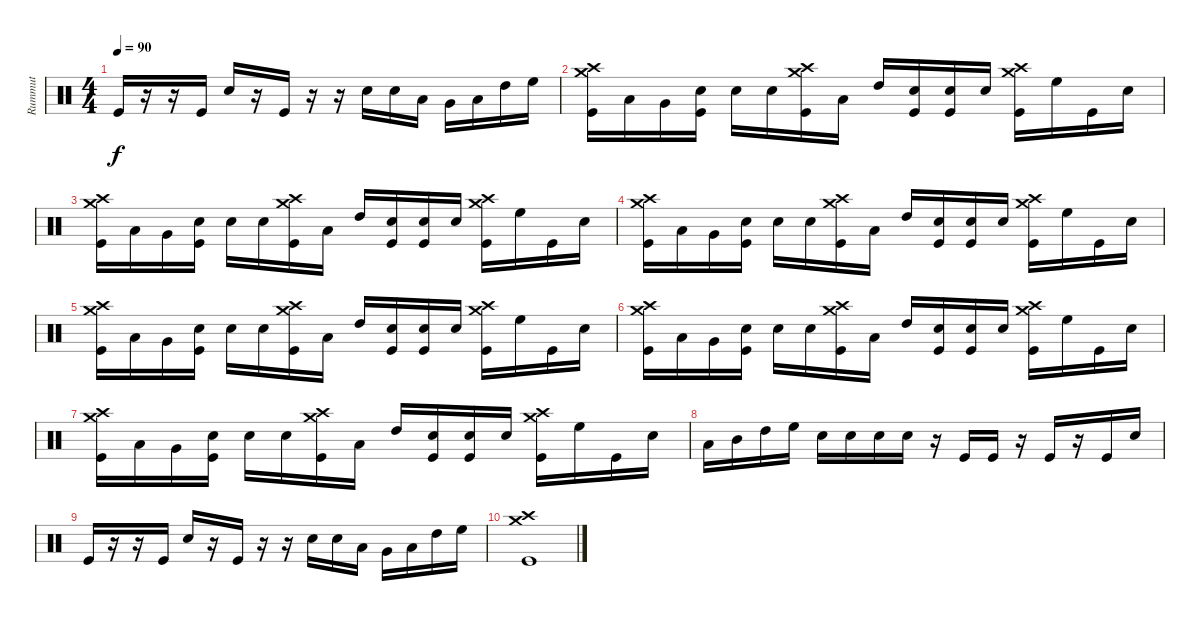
\track ("Rummut" "Rummut") {instrument percussion}
\staff {score}
\articulation defaults
\ts (4 4)
\tempo 90
\clef neutral
\ks c "Kick (hit)".16{dy f}
r.16 r.16 "Kick (hit)".16 "Snare (hit) 2".16 r.16 "Kick (hit)".16 r.16 r.16 "Snare (hit) 2".16 "Snare (hit) 2".16 "Low Floor Tom (hit)".16 "Very Low Tom (hit)".16 "Low Tom (hit)".16 "High Tom (hit)".16 "High Floor Tom (hit)".16 |
("Crash medium (hit)" "Crash high (hit)" "Kick (hit)").16 "Low Floor Tom (hit)".16 "Very Low Tom (hit)".16 ("Snare (hit) 2" "Kick (hit)").16 "Snare (hit) 2".16 "Snare (hit) 2".16 ("Crash medium (hit)" "Crash high (hit)" "Kick (hit)").16 "Low Tom (hit)".16 "High Tom (hit)".16 ("Snare (hit) 2" "Kick (hit)").16 ("Snare (hit) 2" "Kick (hit)").16 "Snare (hit) 2".16 ("Crash medium (hit)" "Crash high (hit)" "Kick (hit)").16 "High Floor Tom (hit)".16 "Kick (hit)".16 "Snare (hit) 2".16 |
("Crash medium (hit)" "Crash high (hit)" "Kick (hit)").16 "Low Floor Tom (hit)".16 "Very Low Tom (hit)".16 ("Snare (hit) 2" "Kick (hit)").16 "Snare (hit) 2".16 "Snare (hit) 2".16 ("Crash medium (hit)" "Crash high (hit)" "Kick (hit)").16 "Low Tom (hit)".16 "High Tom (hit)".16 ("Snare (hit) 2" "Kick (hit)").16 ("Snare (hit) 2" "Kick (hit)").16 "Snare (hit) 2".16 ("Crash medium (hit)" "Crash high (hit)" "Kick (hit)").16 "High Floor Tom (hit)".16 "Kick (hit)".16 "Snare (hit) 2".16 |
("Crash medium (hit)" "Crash high (hit)" "Kick (hit)").16 "Low Floor Tom (hit)".16 "Very Low Tom (hit)".16 ("Snare (hit) 2" "Kick (hit)").16 "Snare (hit) 2".16 "Snare (hit) 2".16 ("Crash medium (hit)" "Crash high (hit)" "Kick (hit)").16 "Low Tom (hit)".16 "High Tom (hit)".16 ("Snare (hit) 2" "Kick (hit)").16 ("Snare (hit) 2" "Kick (hit)").16 "Snare (hit) 2".16 ("Crash medium (hit)" "Crash high (hit)" "Kick (hit)").16 "High Floor Tom (hit)".16 "Kick (hit)".16 "Snare (hit) 2".16 |
("Crash medium (hit)" "Crash high (hit)" "Kick (hit)").16 "Low Floor Tom (hit)".16 "Very Low Tom (hit)".16 ("Snare (hit) 2" "Kick (hit)").16 "Snare (hit) 2".16 "Snare (hit) 2".16 ("Crash medium (hit)" "Crash high (hit)" "Kick (hit)").16 "Low Tom (hit)".16 "High Tom (hit)".16 ("Snare (hit) 2" "Kick (hit)").16 ("Snare (hit) 2" "Kick (hit)").16 "Snare (hit) 2".16 ("Crash medium (hit)" "Crash high (hit)" "Kick (hit)").16 "High Floor Tom (hit)".16 "Kick (hit)".16 "Snare (hit) 2".16 |
("Crash medium (hit)" "Crash high (hit)" "Kick (hit)").16 "Low Floor Tom (hit)".16 "Very Low Tom (hit)".16 ("Snare (hit) 2" "Kick (hit)").16 "Snare (hit) 2".16 "Snare (hit) 2".16 ("Crash medium (hit)" "Crash high (hit)" "Kick (hit)").16 "Low Tom (hit)".16 "High Tom (hit)".16 ("Snare (hit) 2" "Kick (hit)").16 ("Snare (hit) 2" "Kick (hit)").16 "Snare (hit) 2".16 ("Crash medium (hit)" "Crash high (hit)" "Kick (hit)").16 "High Floor Tom (hit)".16 "Kick (hit)".16 "Snare (hit) 2".16 |
("Crash medium (hit)" "Crash high (hit)" "Kick (hit)").16 "Low Floor Tom (hit)".16 "Very Low Tom (hit)".16 ("Snare (hit) 2" "Kick (hit)").16 "Snare (hit) 2".16 "Snare (hit) 2".16 ("Crash medium (hit)" "Crash high (hit)" "Kick (hit)").16 "Low Tom (hit)".16 "High Tom (hit)".16 ("Snare (hit) 2" "Kick (hit)").16 ("Snare (hit) 2" "Kick (hit)").16 "Snare (hit) 2".16 ("Crash medium (hit)" "Crash high (hit)" "Kick (hit)").16 "High Floor Tom (hit)".16 "Kick (hit)".16 "Snare (hit) 2".16 |
"Low Tom (hit)".16 "Mid Tom (hit)".16 "High Tom (hit)".16 "High Floor Tom (hit)".16 "Snare (hit) 2".16 "Snare (hit) 2".16 "Snare (hit) 2".16 "Snare (hit) 2".16 r.16 "Kick (hit)".16 "Kick (hit)".16 r.16 "Kick (hit)".16 r.16 "Kick (hit)".16 "Snare (hit) 2".16 |
"Kick (hit)".16 r.16 r.16 "Kick (hit)".16 "Snare (hit) 2".16 r.16 "Kick (hit)".16 r.16 r.16 "Snare (hit) 2".16 "Snare (hit) 2".16 "Low Floor Tom (hit)".16 "Very Low Tom (hit)".16 "Low Tom (hit)".16 "High Tom (hit)".16 "High Floor Tom (hit)".16 |
("Crash medium (hit)" "Crash high (hit)" "Kick (hit)").1
